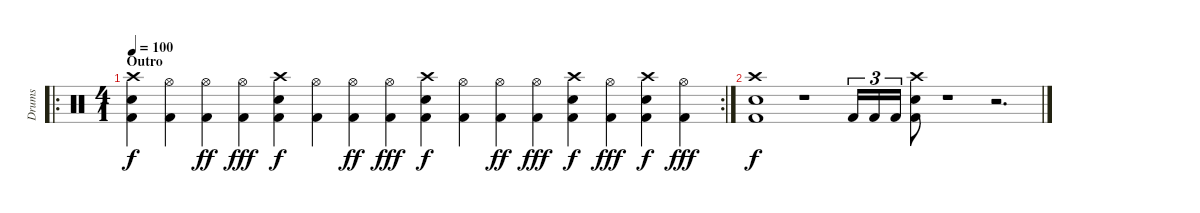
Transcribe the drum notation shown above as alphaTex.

\track ("Drums" "Drums") {instrument percussion}
\staff {score}
\articulation defaults
\ro
\rc 2
\ts (4 1)
\section ("" "Outro")
\tempo 100
\clef neutral
\ks c
("Crash high (hit)" "Kick (hit) 2" "Electric Snare (hit)").4{dy f} ("Hi-Hat (open)" "Kick (hit) 2").4 ("Hi-Hat (open)" "Kick (hit) 2").4{dy ff} ("Hi-Hat (open)" "Kick (hit) 2").4{dy fff} ("Crash high (hit)" "Kick (hit) 2" "Electric Snare (hit)").4{dy f} ("Hi-Hat (open)" "Kick (hit) 2").4 ("Hi-Hat (open)" "Kick (hit) 2").4{dy ff} ("Hi-Hat (open)" "Kick (hit) 2").4{dy fff} ("Crash high (hit)" "Kick (hit) 2" "Electric Snare (hit)").4{dy f} ("Hi-Hat (open)" "Kick (hit) 2").4 ("Hi-Hat (open)" "Kick (hit) 2").4{dy ff} ("Hi-Hat (open)" "Kick (hit) 2").4{dy fff} ("Crash high (hit)" "Electric Snare (hit)" "Kick (hit) 2").4{dy f} ("Hi-Hat (open)" "Kick (hit) 2").4{dy fff} ("Crash high (hit)" "Electric Snare (hit)" "Kick (hit) 2").4{dy f} ("Hi-Hat (open)" "Kick (hit) 2").4{dy fff} |
("Crash high (hit)" "Electric Snare (hit)" "Kick (hit) 2").1{dy f} r.1 "Kick (hit) 2".16{tu (3 2)} "Kick (hit) 2".16{tu (3 2)} "Kick (hit) 2".16{tu (3 2)} ("Electric Snare (hit)" "Kick (hit) 2" "Crash high (hit)").8 r.1 r.2{d}
